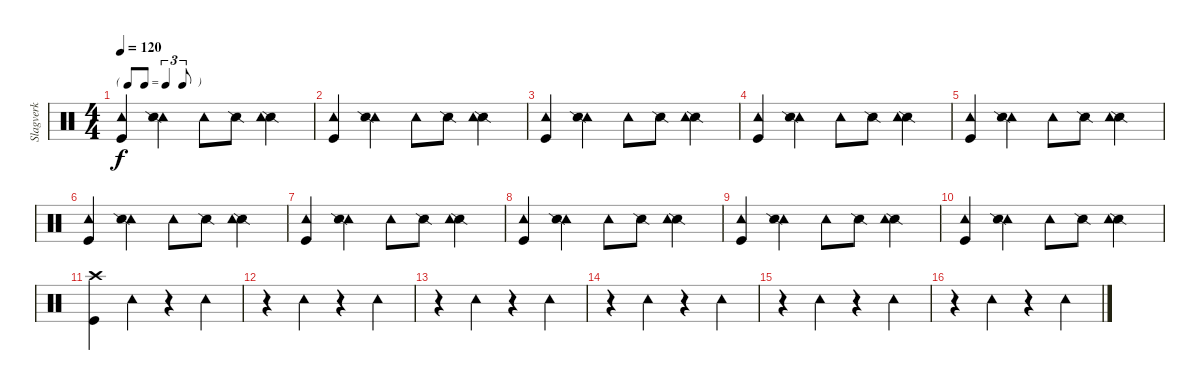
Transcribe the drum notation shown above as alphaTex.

\track ("Slagverk" "Slagverk") {instrument percussion}
\staff {score}
\articulation defaults
\ts (4 4)
\tf triplet8th
\tempo 120
\clef neutral
\ks c
("Tambourine (hit)" "Kick (hit)").4{dy f} ("Tambourine (hit)" "Snare (side stick) 2").4 "Tambourine (hit)".8 "Snare (side stick) 2".8 ("Snare (side stick) 2" "Tambourine (hit)").4 |
("Tambourine (hit)" "Kick (hit)").4 ("Tambourine (hit)" "Snare (side stick) 2").4 "Tambourine (hit)".8 "Snare (side stick) 2".8 ("Snare (side stick) 2" "Tambourine (hit)").4 |
("Tambourine (hit)" "Kick (hit)").4 ("Tambourine (hit)" "Snare (side stick) 2").4 "Tambourine (hit)".8 "Snare (side stick) 2".8 ("Snare (side stick) 2" "Tambourine (hit)").4 |
("Tambourine (hit)" "Kick (hit)").4 ("Tambourine (hit)" "Snare (side stick) 2").4 "Tambourine (hit)".8 "Snare (side stick) 2".8 ("Snare (side stick) 2" "Tambourine (hit)").4 |
("Tambourine (hit)" "Kick (hit)").4 ("Tambourine (hit)" "Snare (side stick) 2").4 "Tambourine (hit)".8 "Snare (side stick) 2".8 ("Snare (side stick) 2" "Tambourine (hit)").4 |
("Tambourine (hit)" "Kick (hit)").4 ("Tambourine (hit)" "Snare (side stick) 2").4 "Tambourine (hit)".8 "Snare (side stick) 2".8 ("Snare (side stick) 2" "Tambourine (hit)").4 |
("Tambourine (hit)" "Kick (hit)").4 ("Tambourine (hit)" "Snare (side stick) 2").4 "Tambourine (hit)".8 "Snare (side stick) 2".8 ("Snare (side stick) 2" "Tambourine (hit)").4 |
("Tambourine (hit)" "Kick (hit)").4 ("Tambourine (hit)" "Snare (side stick) 2").4 "Tambourine (hit)".8 "Snare (side stick) 2".8 ("Snare (side stick) 2" "Tambourine (hit)").4 |
("Tambourine (hit)" "Kick (hit)").4 ("Tambourine (hit)" "Snare (side stick) 2").4 "Tambourine (hit)".8 "Snare (side stick) 2".8 ("Snare (side stick) 2" "Tambourine (hit)").4 |
("Tambourine (hit)" "Kick (hit)").4 ("Tambourine (hit)" "Snare (side stick) 2").4 "Tambourine (hit)".8 "Snare (side stick) 2".8 ("Snare (side stick) 2" "Tambourine (hit)").4 |
("Crash high (hit)" "Kick (hit)").4 "Tambourine (hit)".4 r.4 "Tambourine (hit)".4 |
r.4 "Tambourine (hit)".4 r.4 "Tambourine (hit)".4 |
r.4 "Tambourine (hit)".4 r.4 "Tambourine (hit)".4 |
r.4 "Tambourine (hit)".4 r.4 "Tambourine (hit)".4 |
r.4 "Tambourine (hit)".4 r.4 "Tambourine (hit)".4 |
r.4 "Tambourine (hit)".4 r.4 "Tambourine (hit)".4
